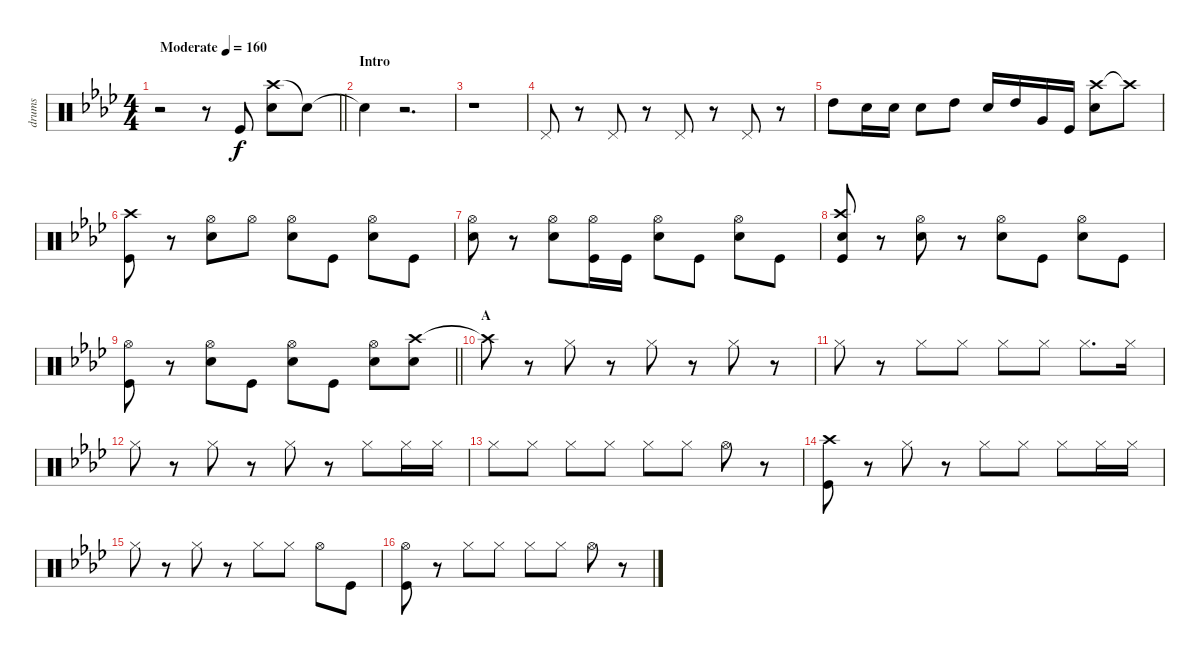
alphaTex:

\track ("drums" "drums") {instrument percussion}
\staff {score}
\articulation defaults
\ts (4 4)
\tempo (160 "Moderate")
\clef neutral
\barLineRight lightlight
\ks ab
r.2{dy f} r.8 "Kick (hit)".8 ("Crash high (hit)" "Snare (hit) 2").8 "Snare (hit)"{t}.8 |
\section ("" "Intro")
"Snare (hit)"{t}.4 r.2{d} |
r.1 |
"Pedal Hi-Hat (hit)".8 r.8 "Pedal Hi-Hat (hit)".8 r.8 "Pedal Hi-Hat (hit)".8 r.8 "Pedal Hi-Hat (hit)".8 r.8 |
"High Tom (hit)".8 "Snare (hit) 2".16 "Snare (hit) 2".16 "Snare (hit) 2".8 "High Tom (hit)".8 "Snare (hit) 2".16 "High Tom (hit)".16 "Very Low Tom (hit)".16 "Kick (hit)".16 ("Crash high (hit)" "Snare (hit) 2").8 "Crash high (hit)"{t}.8 |
("Crash high (hit)" "Kick (hit)").8 r.8 ("Hi-Hat (open)" "Snare (hit) 2").8 "Hi-Hat (open)".8 ("Hi-Hat (open)" "Snare (hit) 2").8 "Kick (hit)".8 ("Hi-Hat (open)" "Snare (hit) 2").8 "Kick (hit)".8 |
("Hi-Hat (open)" "Snare (hit) 2").8 r.8 ("Hi-Hat (open)" "Snare (hit) 2").8 ("Hi-Hat (open)" "Kick (hit)").16 "Kick (hit)".16 ("Hi-Hat (open)" "Snare (hit) 2").8 "Kick (hit)".8 ("Hi-Hat (open)" "Snare (hit) 2").8 "Kick (hit)".8 |
("Crash high (hit)" "Snare (hit) 2" "Kick (hit)").8 r.8 ("Hi-Hat (open)" "Snare (hit) 2").8 r.8 ("Hi-Hat (open)" "Snare (hit) 2").8 "Kick (hit)".8 ("Hi-Hat (open)" "Snare (hit) 2").8 "Kick (hit)".8 |
\barLineRight lightlight
("Hi-Hat (open)" "Kick (hit)").8 r.8 ("Hi-Hat (open)" "Snare (hit) 2").8 "Kick (hit)".8 ("Hi-Hat (open)" "Snare (hit) 2").8 "Kick (hit)".8 ("Hi-Hat (open)" "Snare (hit) 2").8 ("Crash high (hit)" "Snare (hit) 2").8 |
\section ("" "A")
"Crash high (hit)"{t}.8 r.8 "Hi-Hat (closed)".8 r.8 "Hi-Hat (closed)".8 r.8 "Hi-Hat (closed)".8 r.8 |
"Hi-Hat (closed)".8 r.8 "Hi-Hat (closed)".8 "Hi-Hat (closed)".8 "Hi-Hat (closed)".8 "Hi-Hat (closed)".8 "Hi-Hat (closed)".8{d} "Hi-Hat (closed)".16 |
"Hi-Hat (closed)".8 r.8 "Hi-Hat (closed)".8 r.8 "Hi-Hat (closed)".8 r.8 "Hi-Hat (closed)".8 "Hi-Hat (closed)".16 "Hi-Hat (closed)".16 |
"Hi-Hat (closed)".8 "Hi-Hat (closed)".8 "Hi-Hat (closed)".8 "Hi-Hat (closed)".8 "Hi-Hat (closed)".8 "Hi-Hat (closed)".8 "Hi-Hat (open)".8 r.8 |
("Crash high (hit)" "Kick (hit)").8 r.8 "Hi-Hat (closed)".8 r.8 "Hi-Hat (closed)".8 "Hi-Hat (closed)".8 "Hi-Hat (closed)".8 "Hi-Hat (closed)".16 "Hi-Hat (closed)".16 |
"Hi-Hat (closed)".8 r.8 "Hi-Hat (closed)".8 r.8 "Hi-Hat (closed)".8 "Hi-Hat (closed)".8 "Hi-Hat (open)".8 "Kick (hit)".8 |
("Hi-Hat (open)" "Kick (hit)").8 r.8 "Hi-Hat (closed)".8 "Hi-Hat (closed)".8 "Hi-Hat (closed)".8 "Hi-Hat (closed)".8 "Hi-Hat (open)".8 r.8
